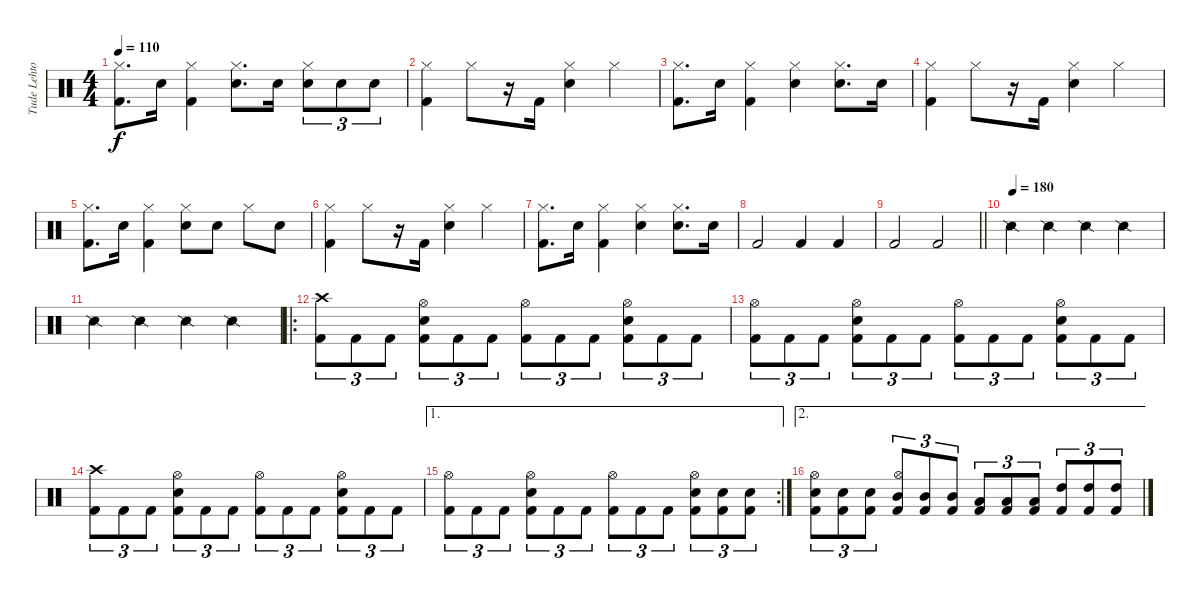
\track ("Tude Lehtonen" "Tude Lehto") {instrument percussion}
\staff {score}
\articulation defaults
\ts (4 4)
\tempo 110
\clef neutral
\ks c
("Hi-Hat (closed)" "Kick (hit) 2").8{d dy f} "Snare (hit) 2".16 ("Hi-Hat (closed)" "Kick (hit) 2").4 ("Hi-Hat (closed)" "Snare (hit) 2").8{d} "Snare (hit) 2".16 ("Hi-Hat (closed)" "Snare (hit) 2").8{tu (3 2)} "Snare (hit) 2".8{tu (3 2)} "Snare (hit) 2".8{tu (3 2)} |
("Hi-Hat (closed)" "Kick (hit) 2").4 "Hi-Hat (closed)".8 r.16 "Kick (hit) 2".16 ("Hi-Hat (closed)" "Snare (hit) 2").4 "Hi-Hat (closed)".4 |
("Hi-Hat (closed)" "Kick (hit) 2").8{d} "Snare (hit) 2".16 ("Hi-Hat (closed)" "Kick (hit) 2").4 ("Hi-Hat (closed)" "Snare (hit) 2").4 ("Hi-Hat (closed)" "Snare (hit) 2").8{d} "Snare (hit) 2".16 |
("Hi-Hat (closed)" "Kick (hit) 2").4 "Hi-Hat (closed)".8 r.16 "Kick (hit) 2".16 ("Hi-Hat (closed)" "Snare (hit) 2").4 "Hi-Hat (closed)".4 |
("Hi-Hat (closed)" "Kick (hit) 2").8{d} "Snare (hit) 2".16 ("Hi-Hat (closed)" "Kick (hit) 2").4 ("Hi-Hat (closed)" "Snare (hit) 2").8 "Snare (hit) 2".8 "Hi-Hat (closed)".8 "Snare (hit) 2".8 |
("Hi-Hat (closed)" "Kick (hit) 2").4 "Hi-Hat (closed)".8 r.16 "Kick (hit) 2".16 ("Hi-Hat (closed)" "Snare (hit) 2").4 "Hi-Hat (closed)".4 |
("Hi-Hat (closed)" "Kick (hit) 2").8{d} "Snare (hit) 2".16 ("Hi-Hat (closed)" "Kick (hit) 2").4 ("Hi-Hat (closed)" "Snare (hit) 2").4 ("Hi-Hat (closed)" "Snare (hit) 2").8{d} "Snare (hit) 2".16 |
"Kick (hit) 2".2 "Kick (hit) 2".4 "Kick (hit) 2".4 |
\barLineRight lightlight "Kick (hit) 2".2 "Kick (hit) 2".2
|
\section ("" "")
\tempo (180)
"Snare (side stick) 2".4 "Snare (side stick) 2".4 "Snare (side stick) 2".4 "Snare (side stick) 2".4 |
"Snare (side stick) 2".4 "Snare (side stick) 2".4 "Snare (side stick) 2".4 "Snare (side stick) 2".4 |
\ro
("Crash high (hit)" "Kick (hit) 2").8{tu (3 2)} "Kick (hit) 2".8{tu (3 2)} "Kick (hit) 2".8{tu (3 2)} ("Hi-Hat (open)" "Snare (hit) 2" "Kick (hit) 2").8{tu (3 2)} "Kick (hit) 2".8{tu (3 2)} "Kick (hit) 2".8{tu (3 2)} ("Hi-Hat (open)" "Kick (hit) 2").8{tu (3 2)} "Kick (hit) 2".8{tu (3 2)} "Kick (hit) 2".8{tu (3 2)} ("Hi-Hat (open)" "Snare (hit) 2" "Kick (hit) 2").8{tu (3 2)} "Kick (hit) 2".8{tu (3 2)} "Kick (hit) 2".8{tu (3 2)} |
("Hi-Hat (open)" "Kick (hit) 2").8{tu (3 2)} "Kick (hit) 2".8{tu (3 2)} "Kick (hit) 2".8{tu (3 2)} ("Hi-Hat (open)" "Snare (hit) 2" "Kick (hit) 2").8{tu (3 2)} "Kick (hit) 2".8{tu (3 2)} "Kick (hit) 2".8{tu (3 2)} ("Hi-Hat (open)" "Kick (hit) 2").8{tu (3 2)} "Kick (hit) 2".8{tu (3 2)} "Kick (hit) 2".8{tu (3 2)} ("Hi-Hat (open)" "Snare (hit) 2" "Kick (hit) 2").8{tu (3 2)} "Kick (hit) 2".8{tu (3 2)} "Kick (hit) 2".8{tu (3 2)} |
("Crash high (hit)" "Kick (hit) 2").8{tu (3 2)} "Kick (hit) 2".8{tu (3 2)} "Kick (hit) 2".8{tu (3 2)} ("Hi-Hat (open)" "Snare (hit) 2" "Kick (hit) 2").8{tu (3 2)} "Kick (hit) 2".8{tu (3 2)} "Kick (hit) 2".8{tu (3 2)} ("Hi-Hat (open)" "Kick (hit) 2").8{tu (3 2)} "Kick (hit) 2".8{tu (3 2)} "Kick (hit) 2".8{tu (3 2)} ("Hi-Hat (open)" "Snare (hit) 2" "Kick (hit) 2").8{tu (3 2)} "Kick (hit) 2".8{tu (3 2)} "Kick (hit) 2".8{tu (3 2)} |
\ae 1
\rc 2
("Hi-Hat (open)" "Kick (hit) 2").8{tu (3 2)} "Kick (hit) 2".8{tu (3 2)} "Kick (hit) 2".8{tu (3 2)} ("Hi-Hat (open)" "Snare (hit) 2" "Kick (hit) 2").8{tu (3 2)} "Kick (hit) 2".8{tu (3 2)} "Kick (hit) 2".8{tu (3 2)} ("Hi-Hat (open)" "Kick (hit) 2").8{tu (3 2)} "Kick (hit) 2".8{tu (3 2)} "Kick (hit) 2".8{tu (3 2)} ("Hi-Hat (open)" "Snare (hit) 2" "Kick (hit) 2").8{tu (3 2)} ("Snare (hit) 2" "Kick (hit) 2").8{tu (3 2)} ("Snare (hit) 2" "Kick (hit) 2").8{tu (3 2)} |
\ae 2
("Hi-Hat (open)" "Snare (hit) 2" "Kick (hit) 2").8{tu (3 2)} ("Snare (hit) 2" "Kick (hit) 2").8{tu (3 2)} ("Snare (hit) 2" "Kick (hit) 2").8{tu (3 2)} ("Hi-Hat (open)" "Mid Tom (hit)" "Kick (hit) 2").8{tu (3 2)} ("Mid Tom (hit)" "Kick (hit) 2").8{tu (3 2)} ("Mid Tom (hit)" "Kick (hit) 2").8{tu (3 2)} ("Low Tom (hit)" "Kick (hit) 2").8{tu (3 2)} ("Low Tom (hit)" "Kick (hit) 2").8{tu (3 2)} ("Low Tom (hit)" "Kick (hit) 2").8{tu (3 2)} ("High Tom (hit)" "Kick (hit) 2").8{tu (3 2)} ("High Tom (hit)" "Kick (hit) 2").8{tu (3 2)} ("High Tom (hit)" "Kick (hit) 2").8{tu (3 2)}
